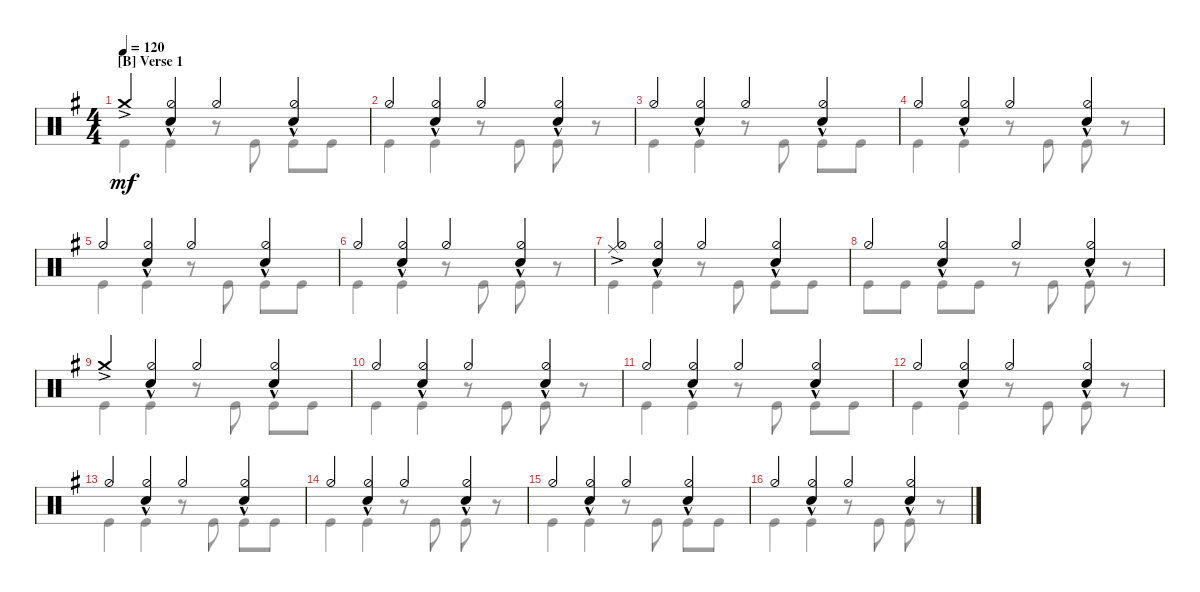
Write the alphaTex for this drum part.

\defaultSystemsLayout 4
\bracketExtendMode groupsimilarinstruments
\singleTrackTrackNamePolicy hidden
\multiTrackTrackNamePolicy hidden
\firstSystemTrackNameOrientation horizontal
\otherSystemsTrackNameOrientation horizontal
\track ("Maksim Udalov" "Drums") {instrument percussion}
\staff {score}
\articulation defaults
\voice
\ts (4 4)
\section ("B" "Verse 1")
\tempo 120
\clef neutral
\scale
1.02648
\ks g "Crash medium (hit)"{ac}.4{dy mf}
("Snare (hit) 2"{hac} "Hi-Hat (half)").4 "Hi-Hat (half)".4 ("Snare (hit) 2"{hac} "Hi-Hat (half)").4 |
\scale
0.973518 "Hi-Hat (half)".4 ("Snare (hit) 2"{hac} "Hi-Hat (half)").4 "Hi-Hat (half)".4 ("Snare (hit) 2"{hac} "Hi-Hat (half)").4 |
\scale
1.02648 "Hi-Hat (half)".4 ("Snare (hit) 2"{hac} "Hi-Hat (half)").4 "Hi-Hat (half)".4 ("Snare (hit) 2"{hac} "Hi-Hat (half)").4 |
\scale
0.973518 "Hi-Hat (half)".4 ("Snare (hit) 2"{hac} "Hi-Hat (half)").4 "Hi-Hat (half)".4 ("Snare (hit) 2"{hac} "Hi-Hat (half)").4 |
\scale
1.02648 "Hi-Hat (half)".4 ("Snare (hit) 2"{hac} "Hi-Hat (half)").4 "Hi-Hat (half)".4 ("Snare (hit) 2"{hac} "Hi-Hat (half)").4 |
\scale
0.973518 "Hi-Hat (half)".4 ("Snare (hit) 2"{hac} "Hi-Hat (half)").4 "Hi-Hat (half)".4 ("Snare (hit) 2"{hac} "Hi-Hat (half)").4 |
\scale
1.02648 ("Hi-Hat (half)" "Ride (middle)"{ac}).4 ("Snare (hit) 2"{hac} "Hi-Hat (half)").4 "Hi-Hat (half)".4 ("Snare (hit) 2"{hac} "Hi-Hat (half)").4 |
\scale
0.973518 "Hi-Hat (half)".4 ("Snare (hit) 2"{hac} "Hi-Hat (half)").4 "Hi-Hat (half)".4 ("Snare (hit) 2"{hac} "Hi-Hat (half)").4 |
\scale
1.02648 "Crash medium (hit)"{ac}.4 ("Snare (hit) 2"{hac} "Hi-Hat (half)").4 "Hi-Hat (half)".4 ("Snare (hit) 2"{hac} "Hi-Hat (half)").4 |
\scale
0.973518 "Hi-Hat (half)".4 ("Snare (hit) 2"{hac} "Hi-Hat (half)").4 "Hi-Hat (half)".4 ("Snare (hit) 2"{hac} "Hi-Hat (half)").4 |
\scale
1.02648 "Hi-Hat (half)".4 ("Snare (hit) 2"{hac} "Hi-Hat (half)").4 "Hi-Hat (half)".4 ("Snare (hit) 2"{hac} "Hi-Hat (half)").4 |
\scale
0.973518 "Hi-Hat (half)".4 ("Snare (hit) 2"{hac} "Hi-Hat (half)").4 "Hi-Hat (half)".4 ("Snare (hit) 2"{hac} "Hi-Hat (half)").4 |
\scale
1.02648 "Hi-Hat (half)".4 ("Snare (hit) 2"{hac} "Hi-Hat (half)").4 "Hi-Hat (half)".4 ("Snare (hit) 2"{hac} "Hi-Hat (half)").4 |
\scale
0.973518 "Hi-Hat (half)".4 ("Snare (hit) 2"{hac} "Hi-Hat (half)").4 "Hi-Hat (half)".4 ("Snare (hit) 2"{hac} "Hi-Hat (half)").4 |
\scale
1.02648 "Hi-Hat (half)".4 ("Snare (hit) 2"{hac} "Hi-Hat (half)").4 "Hi-Hat (half)".4 ("Snare (hit) 2"{hac} "Hi-Hat (half)").4 |
\scale
0.973518 "Hi-Hat (half)".4 ("Snare (hit) 2"{hac} "Hi-Hat (half)").4 "Hi-Hat (half)".4 ("Snare (hit) 2"{hac} "Hi-Hat (half)").4
\voice
\clef neutral
\ottava regular
\simile none
\scale
1.02648
\ks g "Kick (hit)".4{dy mf} "Kick (hit)".4
r.8 "Kick (hit)".8 "Kick (hit)".8 "Kick (hit)".8 |
\scale
0.973518 "Kick (hit)".4 "Kick (hit)".4 r.8 "Kick (hit)".8 "Kick (hit)".8 r.8 |
\scale
1.02648 "Kick (hit)".4 "Kick (hit)".4 r.8 "Kick (hit)".8 "Kick (hit)".8 "Kick (hit)".8 |
\scale
0.973518 "Kick (hit)".4 "Kick (hit)".4 r.8 "Kick (hit)".8 "Kick (hit)".8 r.8 |
\scale
1.02648 "Kick (hit)".4 "Kick (hit)".4 r.8 "Kick (hit)".8 "Kick (hit)".8 "Kick (hit)".8 |
\scale
0.973518 "Kick (hit)".4 "Kick (hit)".4 r.8 "Kick (hit)".8 "Kick (hit)".8 r.8 |
\scale
1.02648 "Kick (hit)".4 "Kick (hit)".4 r.8 "Kick (hit)".8 "Kick (hit)".8 "Kick (hit)".8 |
\scale
0.973518 "Kick (hit)".8 "Kick (hit)".8 "Kick (hit)".8 "Kick (hit)".8 r.8 "Kick (hit)".8 "Kick (hit)".8 r.8 |
\scale
1.02648 "Kick (hit)".4 "Kick (hit)".4 r.8 "Kick (hit)".8 "Kick (hit)".8 "Kick (hit)".8 |
\scale
0.973518 "Kick (hit)".4 "Kick (hit)".4 r.8 "Kick (hit)".8 "Kick (hit)".8 r.8 |
\scale
1.02648 "Kick (hit)".4 "Kick (hit)".4 r.8 "Kick (hit)".8 "Kick (hit)".8 "Kick (hit)".8 |
\scale
0.973518 "Kick (hit)".4 "Kick (hit)".4 r.8 "Kick (hit)".8 "Kick (hit)".8 r.8 |
\scale
1.02648 "Kick (hit)".4 "Kick (hit)".4 r.8 "Kick (hit)".8 "Kick (hit)".8 "Kick (hit)".8 |
\scale
0.973518 "Kick (hit)".4 "Kick (hit)".4 r.8 "Kick (hit)".8 "Kick (hit)".8 r.8 |
\scale
1.02648 "Kick (hit)".4 "Kick (hit)".4 r.8 "Kick (hit)".8 "Kick (hit)".8 "Kick (hit)".8 |
\scale
0.973518 "Kick (hit)".4 "Kick (hit)".4 r.8 "Kick (hit)".8 "Kick (hit)".8 r.8
